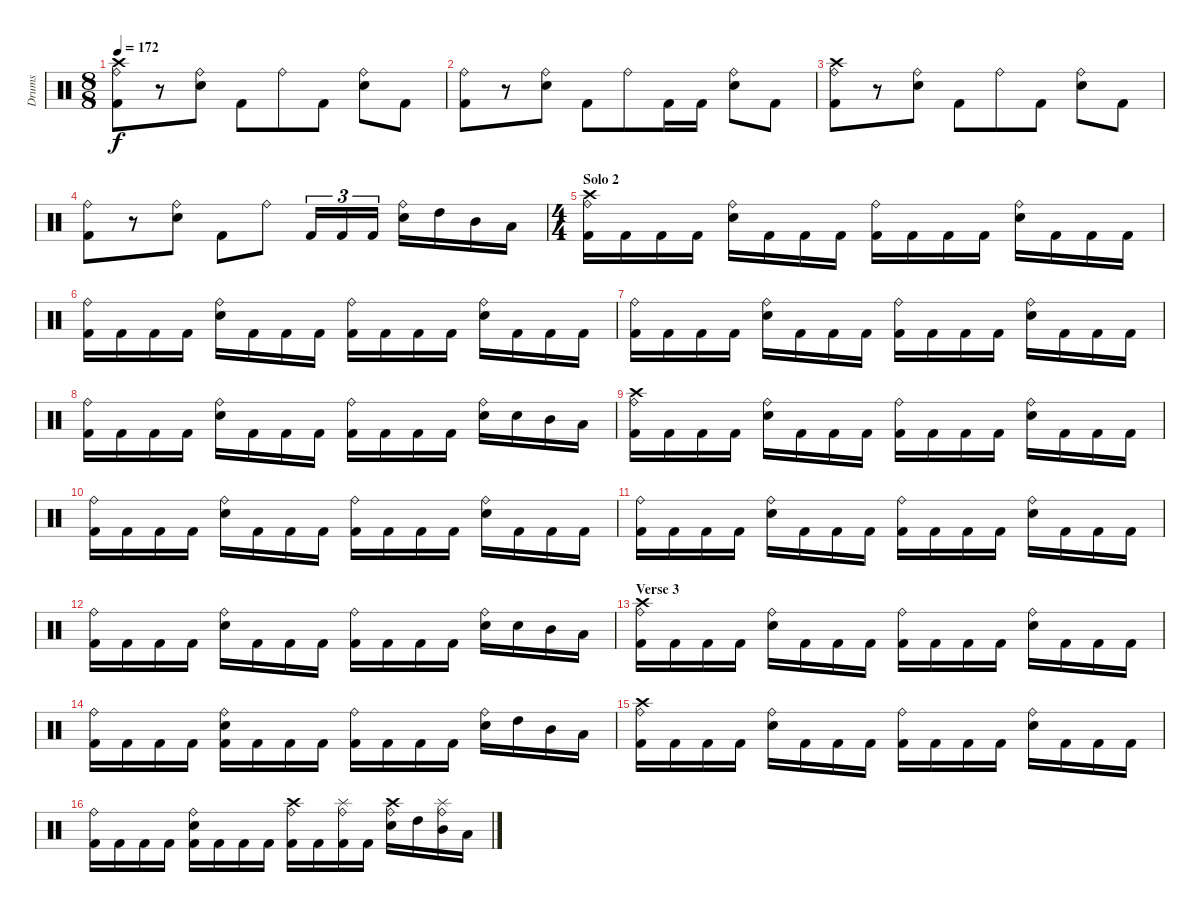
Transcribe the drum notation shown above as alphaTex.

\track ("Drums" "Drums") {instrument percussion}
\staff {score}
\articulation defaults
\ts (8 8)
\tempo 172
\clef neutral
\ks c
("Crash high (hit)" "Ride (bell)" "Kick (hit) 2").8{dy f} r.8 ("Ride (bell)" "Electric Snare (hit)").8 "Kick (hit) 2".8 "Ride (bell)".8 "Kick (hit) 2".8 ("Ride (bell)" "Electric Snare (hit)").8 "Kick (hit) 2".8 |
("Ride (bell)" "Kick (hit) 2").8 r.8 ("Ride (bell)" "Electric Snare (hit)").8 "Kick (hit) 2".8 "Ride (bell)".8 "Kick (hit) 2".16 "Kick (hit) 2".16 ("Ride (bell)" "Electric Snare (hit)").8 "Kick (hit) 2".8 |
("Crash high (hit)" "Ride (bell)" "Kick (hit) 2").8 r.8 ("Ride (bell)" "Electric Snare (hit)").8 "Kick (hit) 2".8 "Ride (bell)".8 "Kick (hit) 2".8 ("Ride (bell)" "Electric Snare (hit)").8 "Kick (hit) 2".8 |
("Ride (bell)" "Kick (hit) 2").8 r.8 ("Ride (bell)" "Electric Snare (hit)").8 "Kick (hit) 2".8 "Ride (bell)".8 "Kick (hit) 2".16{tu (3 2)} "Kick (hit) 2".16{tu (3 2)} "Kick (hit) 2".16{tu (3 2)} ("Ride (bell)" "Electric Snare (hit)").16 "High Tom (hit)".16 "Mid Tom (hit)".16 "Low Tom (hit)".16 |
\ts (4 4)
\section ("" "Solo 2")
("Crash high (hit)" "Ride (bell)" "Kick (hit) 2").16 "Kick (hit) 2".16 "Kick (hit) 2".16 "Kick (hit) 2".16 ("Ride (bell)" "Electric Snare (hit)").16 "Kick (hit) 2".16 "Kick (hit) 2".16 "Kick (hit) 2".16 ("Ride (bell)" "Kick (hit) 2").16 "Kick (hit) 2".16 "Kick (hit) 2".16 "Kick (hit) 2".16 ("Ride (bell)" "Electric Snare (hit)").16 "Kick (hit) 2".16 "Kick (hit) 2".16 "Kick (hit) 2".16 |
("Ride (bell)" "Kick (hit) 2").16 "Kick (hit) 2".16 "Kick (hit) 2".16 "Kick (hit) 2".16 ("Ride (bell)" "Electric Snare (hit)").16 "Kick (hit) 2".16 "Kick (hit) 2".16 "Kick (hit) 2".16 ("Ride (bell)" "Kick (hit) 2").16 "Kick (hit) 2".16 "Kick (hit) 2".16 "Kick (hit) 2".16 ("Ride (bell)" "Electric Snare (hit)").16 "Kick (hit) 2".16 "Kick (hit) 2".16 "Kick (hit) 2".16 |
("Ride (bell)" "Kick (hit) 2").16 "Kick (hit) 2".16 "Kick (hit) 2".16 "Kick (hit) 2".16 ("Ride (bell)" "Electric Snare (hit)").16 "Kick (hit) 2".16 "Kick (hit) 2".16 "Kick (hit) 2".16 ("Ride (bell)" "Kick (hit) 2").16 "Kick (hit) 2".16 "Kick (hit) 2".16 "Kick (hit) 2".16 ("Ride (bell)" "Electric Snare (hit)").16 "Kick (hit) 2".16 "Kick (hit) 2".16 "Kick (hit) 2".16 |
("Ride (bell)" "Kick (hit) 2").16 "Kick (hit) 2".16 "Kick (hit) 2".16 "Kick (hit) 2".16 ("Ride (bell)" "Electric Snare (hit)").16 "Kick (hit) 2".16 "Kick (hit) 2".16 "Kick (hit) 2".16 ("Ride (bell)" "Kick (hit) 2").16 "Kick (hit) 2".16 "Kick (hit) 2".16 "Kick (hit) 2".16 ("Ride (bell)" "Electric Snare (hit)").16 "Electric Snare (hit)".16 "Mid Tom (hit)".16 "Low Tom (hit)".16 |
("Crash high (hit)" "Ride (bell)" "Kick (hit) 2").16 "Kick (hit) 2".16 "Kick (hit) 2".16 "Kick (hit) 2".16 ("Ride (bell)" "Electric Snare (hit)").16 "Kick (hit) 2".16 "Kick (hit) 2".16 "Kick (hit) 2".16 ("Ride (bell)" "Kick (hit) 2").16 "Kick (hit) 2".16 "Kick (hit) 2".16 "Kick (hit) 2".16 ("Ride (bell)" "Electric Snare (hit)").16 "Kick (hit) 2".16 "Kick (hit) 2".16 "Kick (hit) 2".16 |
("Ride (bell)" "Kick (hit) 2").16 "Kick (hit) 2".16 "Kick (hit) 2".16 "Kick (hit) 2".16 ("Ride (bell)" "Electric Snare (hit)").16 "Kick (hit) 2".16 "Kick (hit) 2".16 "Kick (hit) 2".16 ("Ride (bell)" "Kick (hit) 2").16 "Kick (hit) 2".16 "Kick (hit) 2".16 "Kick (hit) 2".16 ("Ride (bell)" "Electric Snare (hit)").16 "Kick (hit) 2".16 "Kick (hit) 2".16 "Kick (hit) 2".16 |
("Ride (bell)" "Kick (hit) 2").16 "Kick (hit) 2".16 "Kick (hit) 2".16 "Kick (hit) 2".16 ("Ride (bell)" "Electric Snare (hit)").16 "Kick (hit) 2".16 "Kick (hit) 2".16 "Kick (hit) 2".16 ("Ride (bell)" "Kick (hit) 2").16 "Kick (hit) 2".16 "Kick (hit) 2".16 "Kick (hit) 2".16 ("Ride (bell)" "Electric Snare (hit)").16 "Kick (hit) 2".16 "Kick (hit) 2".16 "Kick (hit) 2".16 |
("Ride (bell)" "Kick (hit) 2").16 "Kick (hit) 2".16 "Kick (hit) 2".16 "Kick (hit) 2".16 ("Ride (bell)" "Electric Snare (hit)").16 "Kick (hit) 2".16 "Kick (hit) 2".16 "Kick (hit) 2".16 ("Ride (bell)" "Kick (hit) 2").16 "Kick (hit) 2".16 "Kick (hit) 2".16 "Kick (hit) 2".16 ("Ride (bell)" "Electric Snare (hit)").16 "Electric Snare (hit)".16 "Mid Tom (hit)".16 "Low Tom (hit)".16 |
\section ("" "Verse 3")
("Crash high (hit)" "Ride (bell)" "Kick (hit) 2").16 "Kick (hit) 2".16 "Kick (hit) 2".16 "Kick (hit) 2".16 ("Ride (bell)" "Electric Snare (hit)").16 "Kick (hit) 2".16 "Kick (hit) 2".16 "Kick (hit) 2".16 ("Ride (bell)" "Kick (hit) 2").16 "Kick (hit) 2".16 "Kick (hit) 2".16 "Kick (hit) 2".16 ("Ride (bell)" "Electric Snare (hit)").16 "Kick (hit) 2".16 "Kick (hit) 2".16 "Kick (hit) 2".16 |
("Ride (bell)" "Kick (hit) 2").16 "Kick (hit) 2".16 "Kick (hit) 2".16 "Kick (hit) 2".16 ("Ride (bell)" "Electric Snare (hit)" "Kick (hit) 2").16 "Kick (hit) 2".16 "Kick (hit) 2".16 "Kick (hit) 2".16 ("Ride (bell)" "Kick (hit) 2").16 "Kick (hit) 2".16 "Kick (hit) 2".16 "Kick (hit) 2".16 ("Ride (bell)" "Electric Snare (hit)").16 "High Tom (hit)".16 "Mid Tom (hit)".16 "Low Tom (hit)".16 |
("Crash high (hit)" "Ride (bell)" "Kick (hit) 2").16 "Kick (hit) 2".16 "Kick (hit) 2".16 "Kick (hit) 2".16 ("Ride (bell)" "Electric Snare (hit)").16 "Kick (hit) 2".16 "Kick (hit) 2".16 "Kick (hit) 2".16 ("Ride (bell)" "Kick (hit) 2").16 "Kick (hit) 2".16 "Kick (hit) 2".16 "Kick (hit) 2".16 ("Ride (bell)" "Electric Snare (hit)").16 "Kick (hit) 2".16 "Kick (hit) 2".16 "Kick (hit) 2".16 |
("Ride (bell)" "Kick (hit) 2").16 "Kick (hit) 2".16 "Kick (hit) 2".16 "Kick (hit) 2".16 ("Ride (bell)" "Electric Snare (hit)" "Kick (hit) 2").16 "Kick (hit) 2".16 "Kick (hit) 2".16 "Kick (hit) 2".16 ("Crash high (hit)" "Ride (bell)" "Kick (hit) 2").16 "Kick (hit) 2".16 ("Splash (hit)" "Ride (bell)" "Kick (hit) 2").16 "Kick (hit) 2".16 ("Crash high (hit)" "Ride (bell)" "Electric Snare (hit)").16 "High Tom (hit)".16 ("Splash (hit)" "Ride (bell)" "Mid Tom (hit)").16 "Low Tom (hit)".16
